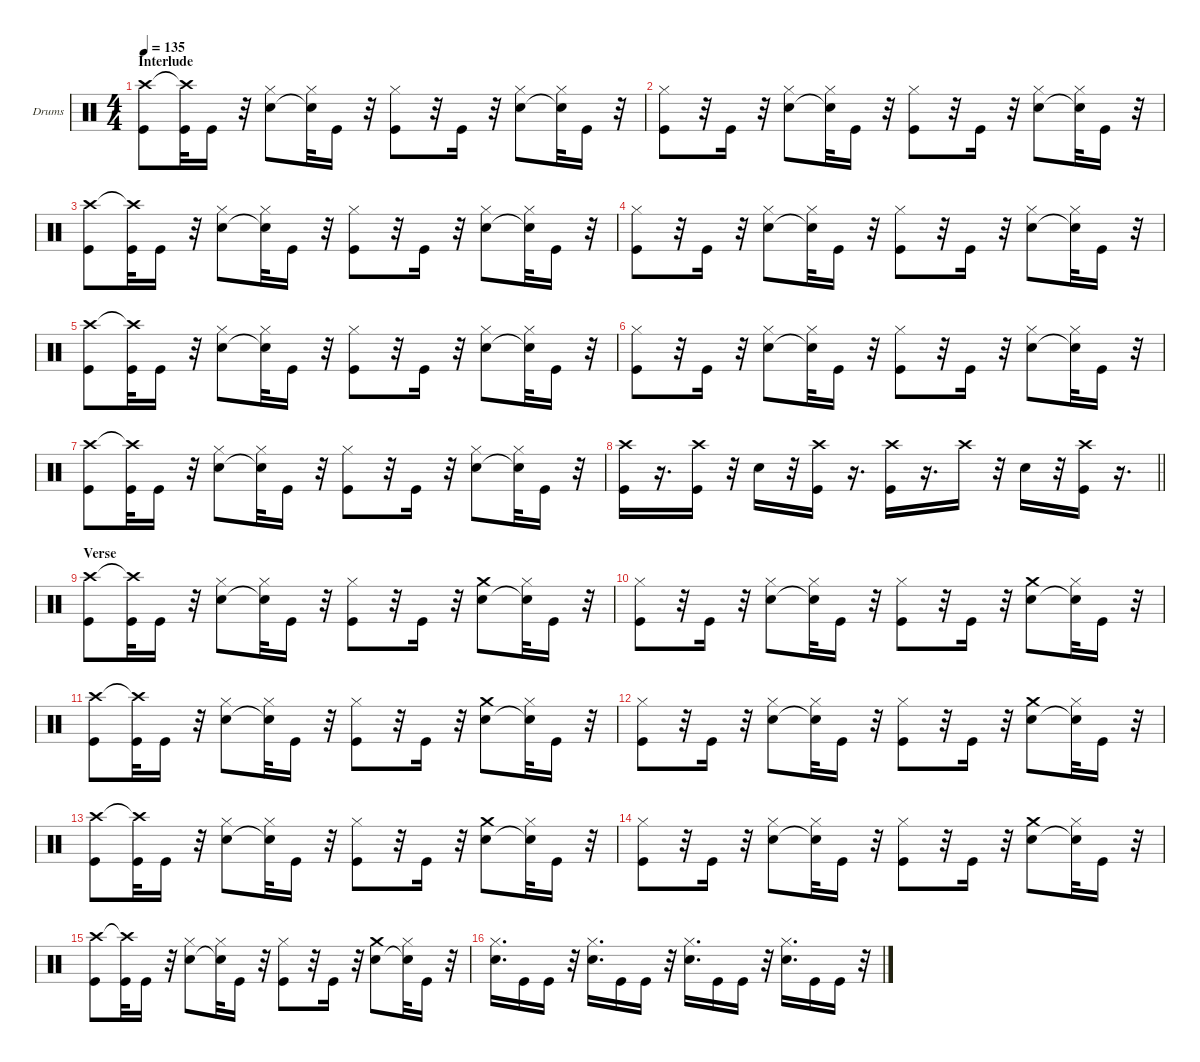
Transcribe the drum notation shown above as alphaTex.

\hideDynamics
\bracketExtendMode groupsimilarinstruments
\firstSystemTrackNameOrientation horizontal
\otherSystemsTrackNameOrientation horizontal
\track ("Drumkit" "Drums") {solo instrument percussion}
\staff {score}
\articulation defaults
\ts (4 4)
\section ("" "Interlude")
\tempo 135
\clef neutral
\scale
0.333333
\ks c
("Kick (hit)" "Crash high (hit)").8{dy fff} ("Kick (hit)" "Crash high (hit)"{t}).32 "Kick (hit)".16 r.32 ("Snare (hit) 2" "Hi-Hat (closed)").8 ("Snare (hit) 2"{t} "Hi-Hat (closed)").32 "Kick (hit)".16 r.32 ("Kick (hit)" "Hi-Hat (closed)").8 r.32 "Kick (hit)".16 r.32 ("Snare (hit) 2" "Hi-Hat (closed)").8 ("Snare (hit) 2"{t} "Hi-Hat (closed)").32 "Kick (hit)".16 r.32 |
\scale
0.333333 ("Kick (hit)" "Hi-Hat (closed)").8 r.32 "Kick (hit)".16 r.32 ("Hi-Hat (closed)" "Snare (hit) 2").8 ("Hi-Hat (closed)" "Snare (hit) 2"{t}).32 "Kick (hit)".16 r.32 ("Kick (hit)" "Hi-Hat (closed)").8 r.32 "Kick (hit)".16 r.32 ("Hi-Hat (closed)" "Snare (hit) 2").8 ("Hi-Hat (closed)" "Snare (hit) 2"{t}).32 "Kick (hit)".16 r.32 |
\scale
0.333333 ("Kick (hit)" "Crash high (hit)").8 ("Kick (hit)" "Crash high (hit)"{t}).32 "Kick (hit)".16 r.32 ("Snare (hit) 2" "Hi-Hat (closed)").8 ("Snare (hit) 2"{t} "Hi-Hat (closed)").32 "Kick (hit)".16 r.32 ("Kick (hit)" "Hi-Hat (closed)").8 r.32 "Kick (hit)".16 r.32 ("Snare (hit) 2" "Hi-Hat (closed)").8 ("Snare (hit) 2"{t} "Hi-Hat (closed)").32 "Kick (hit)".16 r.32 |
\scale
0.333333 ("Kick (hit)" "Hi-Hat (closed)").8 r.32 "Kick (hit)".16 r.32 ("Hi-Hat (closed)" "Snare (hit) 2").8 ("Hi-Hat (closed)" "Snare (hit) 2"{t}).32 "Kick (hit)".16 r.32 ("Kick (hit)" "Hi-Hat (closed)").8 r.32 "Kick (hit)".16 r.32 ("Hi-Hat (closed)" "Snare (hit) 2").8 ("Hi-Hat (closed)" "Snare (hit) 2"{t}).32 "Kick (hit)".16 r.32 |
\scale
0.333333 ("Kick (hit)" "Crash high (hit)").8 ("Kick (hit)" "Crash high (hit)"{t}).32 "Kick (hit)".16 r.32 ("Snare (hit) 2" "Hi-Hat (closed)").8 ("Snare (hit) 2"{t} "Hi-Hat (closed)").32 "Kick (hit)".16 r.32 ("Kick (hit)" "Hi-Hat (closed)").8 r.32 "Kick (hit)".16 r.32 ("Snare (hit) 2" "Hi-Hat (closed)").8 ("Snare (hit) 2"{t} "Hi-Hat (closed)").32 "Kick (hit)".16 r.32 |
\scale
0.333333 ("Kick (hit)" "Hi-Hat (closed)").8 r.32 "Kick (hit)".16 r.32 ("Hi-Hat (closed)" "Snare (hit) 2").8 ("Hi-Hat (closed)" "Snare (hit) 2"{t}).32 "Kick (hit)".16 r.32 ("Kick (hit)" "Hi-Hat (closed)").8 r.32 "Kick (hit)".16 r.32 ("Hi-Hat (closed)" "Snare (hit) 2").8 ("Hi-Hat (closed)" "Snare (hit) 2"{t}).32 "Kick (hit)".16 r.32 |
\scale
0.333333 ("Kick (hit)" "Crash high (hit)").8 ("Kick (hit)" "Crash high (hit)"{t}).32 "Kick (hit)".16 r.32 ("Snare (hit) 2" "Hi-Hat (closed)").8 ("Snare (hit) 2"{t} "Hi-Hat (closed)").32 "Kick (hit)".16 r.32 ("Kick (hit)" "Hi-Hat (closed)").8 r.32 "Kick (hit)".16 r.32 ("Snare (hit) 2" "Hi-Hat (closed)").8 ("Snare (hit) 2"{t} "Hi-Hat (closed)").32 "Kick (hit)".16 r.32 |
\scale
0.333333
\barLineRight lightlight
("Kick (hit)" "Crash high (hit)").16 r.16{d} ("Crash high (hit)" "Kick (hit)").16 r.32 "Snare (hit) 2".16 r.32 ("Crash high (hit)" "Kick (hit)").16 r.16{d} ("Kick (hit)" "Crash high (hit)").16 r.16{d} "Crash high (hit)".16 r.32 "Snare (hit) 2".16 r.32 ("Crash high (hit)" "Kick (hit)").16 r.16{d} |
\section ("" "Verse")
\scale
0.333333 ("Crash high (hit)" "Kick (hit)").8 ("Crash high (hit)"{t} "Kick (hit)").32 "Kick (hit)".16 r.32 ("Hi-Hat (closed)" "Snare (hit) 2").8 ("Hi-Hat (closed)" "Snare (hit) 2"{t}).32 "Kick (hit)".16 r.32 ("Hi-Hat (closed)" "Kick (hit)").8 r.32 "Kick (hit)".16 r.32 ("Crash medium (hit)" "Snare (hit) 2").8 ("Hi-Hat (closed)" "Snare (hit) 2"{t}).32 "Kick (hit)".16 r.32 |
\scale
0.333333 ("Kick (hit)" "Hi-Hat (closed)").8 r.32 "Kick (hit)".16 r.32 ("Hi-Hat (closed)" "Snare (hit) 2").8 ("Hi-Hat (closed)" "Snare (hit) 2"{t}).32 "Kick (hit)".16 r.32 ("Hi-Hat (closed)" "Kick (hit)").8 r.32 "Kick (hit)".16 r.32 ("Crash medium (hit)" "Snare (hit) 2").8 ("Hi-Hat (closed)" "Snare (hit) 2"{t}).32 "Kick (hit)".16 r.32 |
\scale
0.333333 ("Crash high (hit)" "Kick (hit)").8 ("Crash high (hit)"{t} "Kick (hit)").32 "Kick (hit)".16 r.32 ("Hi-Hat (closed)" "Snare (hit) 2").8 ("Hi-Hat (closed)" "Snare (hit) 2"{t}).32 "Kick (hit)".16 r.32 ("Hi-Hat (closed)" "Kick (hit)").8 r.32 "Kick (hit)".16 r.32 ("Crash medium (hit)" "Snare (hit) 2").8 ("Hi-Hat (closed)" "Snare (hit) 2"{t}).32 "Kick (hit)".16 r.32 |
\scale
0.333333 ("Kick (hit)" "Hi-Hat (closed)").8 r.32 "Kick (hit)".16 r.32 ("Hi-Hat (closed)" "Snare (hit) 2").8 ("Hi-Hat (closed)" "Snare (hit) 2"{t}).32 "Kick (hit)".16 r.32 ("Hi-Hat (closed)" "Kick (hit)").8 r.32 "Kick (hit)".16 r.32 ("Crash medium (hit)" "Snare (hit) 2").8 ("Hi-Hat (closed)" "Snare (hit) 2"{t}).32 "Kick (hit)".16 r.32 |
\scale
0.333333 ("Crash high (hit)" "Kick (hit)").8 ("Crash high (hit)"{t} "Kick (hit)").32 "Kick (hit)".16 r.32 ("Hi-Hat (closed)" "Snare (hit) 2").8 ("Hi-Hat (closed)" "Snare (hit) 2"{t}).32 "Kick (hit)".16 r.32 ("Hi-Hat (closed)" "Kick (hit)").8 r.32 "Kick (hit)".16 r.32 ("Crash medium (hit)" "Snare (hit) 2").8 ("Hi-Hat (closed)" "Snare (hit) 2"{t}).32 "Kick (hit)".16 r.32 |
\scale
0.333333 ("Kick (hit)" "Hi-Hat (closed)").8 r.32 "Kick (hit)".16 r.32 ("Hi-Hat (closed)" "Snare (hit) 2").8 ("Hi-Hat (closed)" "Snare (hit) 2"{t}).32 "Kick (hit)".16 r.32 ("Hi-Hat (closed)" "Kick (hit)").8 r.32 "Kick (hit)".16 r.32 ("Crash medium (hit)" "Snare (hit) 2").8 ("Hi-Hat (closed)" "Snare (hit) 2"{t}).32 "Kick (hit)".16 r.32 |
\scale
0.333333 ("Crash high (hit)" "Kick (hit)").8 ("Crash high (hit)"{t} "Kick (hit)").32 "Kick (hit)".16 r.32 ("Hi-Hat (closed)" "Snare (hit) 2").8 ("Hi-Hat (closed)" "Snare (hit) 2"{t}).32 "Kick (hit)".16 r.32 ("Hi-Hat (closed)" "Kick (hit)").8 r.32 "Kick (hit)".16 r.32 ("Crash medium (hit)" "Snare (hit) 2").8 ("Hi-Hat (closed)" "Snare (hit) 2"{t}).32 "Kick (hit)".16 r.32 |
\scale
0.333333 ("Hi-Hat (closed)" "Snare (hit) 2").16{d} "Kick (hit)".16 "Kick (hit)".16 r.32 ("Hi-Hat (closed)" "Snare (hit) 2").16{d} "Kick (hit)".16 "Kick (hit)".16 r.32 ("Hi-Hat (closed)" "Snare (hit) 2").16{d} "Kick (hit)".16 "Kick (hit)".16 r.32 ("Hi-Hat (closed)" "Snare (hit) 2").16{d} "Kick (hit)".16 "Kick (hit)".16 r.32
